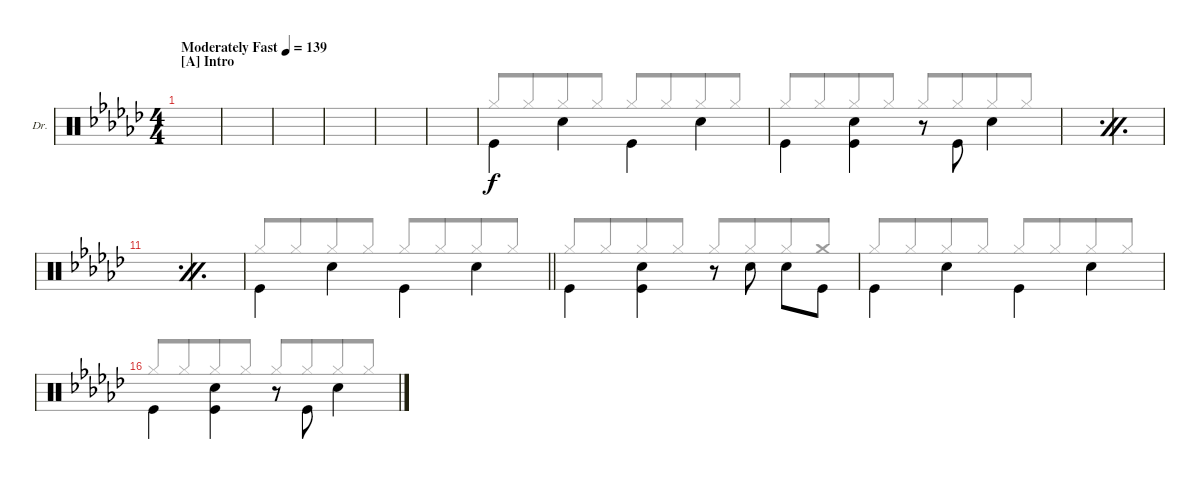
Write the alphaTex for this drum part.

\bracketExtendMode groupsimilarinstruments
\firstSystemTrackNameOrientation horizontal
\otherSystemsTrackNameOrientation horizontal
\defaultBarNumberDisplay FirstOfSystem
\track ("Drums" "Dr.") {instrument percussion}
\staff {score}
\articulation defaults
\voice
\ts (4 4)
\beaming (8 2 2 2 2)
\section ("A" "Intro")
\tempo (139 "Moderately Fast")
\clef neutral
\ks gb
|
|
|
|
|
|
"Kick (hit)".4{beam invert} "Snare (hit) 2".4{beam invert} "Kick (hit)".4{beam invert} "Snare (hit) 2".4{beam invert} |
"Kick (hit)".4{beam invert} ("Snare (hit) 2" "Kick (hit)").4{beam invert} r.8 "Kick (hit)".8{beam invert} "Snare (hit) 2".4{beam invert} |
\simile firstofdouble
|
\simile secondofdouble
|
\simile firstofdouble
|
\simile secondofdouble
|
\simile none
\barLineRight lightlight "Kick (hit)".4{beam invert} "Snare (hit) 2".4{beam invert} "Kick (hit)".4{beam invert} "Snare (hit) 2".4{beam invert}
|
"Kick (hit)".4{beam invert} ("Snare (hit) 2" "Kick (hit)").4{beam invert} r.8 "Snare (hit) 2".8{beam invert} "Snare (hit) 2".8{beam invert} "Kick (hit)".8 |
"Kick (hit)".4{beam invert} "Snare (hit) 2".4{beam invert} "Kick (hit)".4{beam invert} "Snare (hit) 2".4{beam invert} |
"Kick (hit)".4{beam invert} ("Snare (hit) 2" "Kick (hit)").4{beam invert} r.8 "Kick (hit)".8{beam invert} "Snare (hit) 2".4{beam invert}
\voice
\clef neutral
\ottava regular
\simile none
\ks gb
|
|
|
|
|
|
"Hi-Hat (closed)".8{beam invert} "Hi-Hat (closed)".8{beam merge} "Hi-Hat (closed)".8{beam merge} "Hi-Hat (closed)".8 "Hi-Hat (closed)".8{beam invert} "Hi-Hat (closed)".8{beam merge} "Hi-Hat (closed)".8 "Hi-Hat (closed)".8 |
"Hi-Hat (closed)".8{beam invert} "Hi-Hat (closed)".8{beam merge} "Hi-Hat (closed)".8 "Hi-Hat (closed)".8 "Hi-Hat (closed)".8{beam invert} "Hi-Hat (closed)".8{beam merge} "Hi-Hat (closed)".8 "Hi-Hat (closed)".8 |
\simile firstofdouble
|
\simile secondofdouble
|
\simile firstofdouble
|
\simile secondofdouble
|
\simile none
\barLineRight lightlight "Hi-Hat (closed)".8{beam invert} "Hi-Hat (closed)".8{beam merge} "Hi-Hat (closed)".8{beam merge} "Hi-Hat (closed)".8 "Hi-Hat (closed)".8{beam invert} "Hi-Hat (closed)".8{beam merge} "Hi-Hat (closed)".8 "Hi-Hat (closed)".8
|
"Hi-Hat (closed)".8{beam invert beam merge} "Hi-Hat (closed)".8{beam merge} "Hi-Hat (closed)".8 "Hi-Hat (closed)".8 "Hi-Hat (closed)".8{beam invert} "Hi-Hat (closed)".8{beam merge} "Hi-Hat (closed)".8 "Crash medium (hit)".8 |
"Hi-Hat (closed)".8{beam invert} "Hi-Hat (closed)".8{beam merge} "Hi-Hat (closed)".8 "Hi-Hat (closed)".8 "Hi-Hat (closed)".8{beam invert} "Hi-Hat (closed)".8{beam merge} "Hi-Hat (closed)".8 "Hi-Hat (closed)".8 |
"Hi-Hat (closed)".8{beam invert} "Hi-Hat (closed)".8{beam merge} "Hi-Hat (closed)".8 "Hi-Hat (closed)".8 "Hi-Hat (closed)".8{beam invert beam merge} "Hi-Hat (closed)".8{beam merge} "Hi-Hat (closed)".8{beam merge} "Hi-Hat (closed)".8
